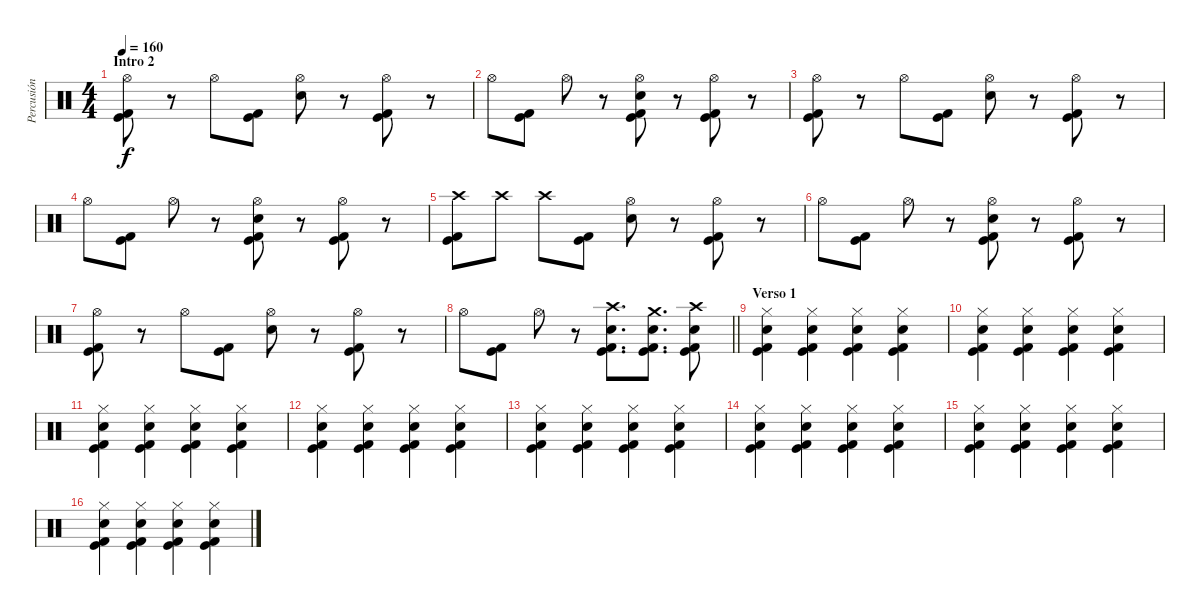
\track ("Percusión" "Percusión") {instrument percussion}
\staff {score}
\articulation defaults
\ts (4 4)
\section ("" "Intro 2")
\tempo 160
\clef neutral
\ks c
("Hi-Hat (open)" "Kick (hit)" "Kick (hit) 2").8{dy f} r.8 "Hi-Hat (open)".8 ("Kick (hit)" "Kick (hit) 2").8 ("Hi-Hat (open)" "Electric Snare (hit)").8 r.8 ("Hi-Hat (open)" "Kick (hit)" "Kick (hit) 2").8 r.8 |
"Hi-Hat (open)".8 ("Kick (hit)" "Kick (hit) 2").8 "Hi-Hat (open)".8 r.8 ("Hi-Hat (open)" "Electric Snare (hit)" "Kick (hit)" "Kick (hit) 2").8 r.8 ("Hi-Hat (open)" "Kick (hit)" "Kick (hit) 2").8 r.8 |
("Hi-Hat (open)" "Kick (hit)" "Kick (hit) 2").8 r.8 "Hi-Hat (open)".8 ("Kick (hit)" "Kick (hit) 2").8 ("Hi-Hat (open)" "Electric Snare (hit)").8 r.8 ("Hi-Hat (open)" "Kick (hit)" "Kick (hit) 2").8 r.8 |
"Hi-Hat (open)".8 ("Kick (hit)" "Kick (hit) 2").8 "Hi-Hat (open)".8 r.8 ("Hi-Hat (open)" "Electric Snare (hit)" "Kick (hit)" "Kick (hit) 2").8 r.8 ("Hi-Hat (open)" "Kick (hit)" "Kick (hit) 2").8 r.8 |
("Crash high (hit)" "Kick (hit)" "Kick (hit) 2").8 "Crash high (hit)".8 "Crash high (hit)".8 ("Kick (hit)" "Kick (hit) 2").8 ("Hi-Hat (open)" "Electric Snare (hit)").8 r.8 ("Hi-Hat (open)" "Kick (hit)" "Kick (hit) 2").8 r.8 |
"Hi-Hat (open)".8 ("Kick (hit)" "Kick (hit) 2").8 "Hi-Hat (open)".8 r.8 ("Hi-Hat (open)" "Electric Snare (hit)" "Kick (hit)" "Kick (hit) 2").8 r.8 ("Hi-Hat (open)" "Kick (hit)" "Kick (hit) 2").8 r.8 |
("Hi-Hat (open)" "Kick (hit)" "Kick (hit) 2").8 r.8 "Hi-Hat (open)".8 ("Kick (hit)" "Kick (hit) 2").8 ("Hi-Hat (open)" "Electric Snare (hit)").8 r.8 ("Hi-Hat (open)" "Kick (hit)" "Kick (hit) 2").8 r.8 |
\barLineRight lightlight "Hi-Hat (open)".8
("Kick (hit)" "Kick (hit) 2").8 "Hi-Hat (open)".8 r.8 ("Crash high (hit)" "Electric Snare (hit)" "Kick (hit)" "Kick (hit) 2").8{d} ("Crash medium (hit)" "Electric Snare (hit)" "Kick (hit)" "Kick (hit) 2").8{d} ("Crash high (hit)" "Electric Snare (hit)" "Kick (hit)" "Kick (hit) 2").8 |
\section ("" "Verso 1")
("Hi-Hat (closed)" "Electric Snare (hit)" "Kick (hit)" "Kick (hit) 2").4 ("Hi-Hat (closed)" "Electric Snare (hit)" "Kick (hit)" "Kick (hit) 2").4 ("Hi-Hat (closed)" "Electric Snare (hit)" "Kick (hit)" "Kick (hit) 2").4 ("Hi-Hat (closed)" "Electric Snare (hit)" "Kick (hit)" "Kick (hit) 2").4 |
("Hi-Hat (closed)" "Electric Snare (hit)" "Kick (hit)" "Kick (hit) 2").4 ("Hi-Hat (closed)" "Electric Snare (hit)" "Kick (hit)" "Kick (hit) 2").4 ("Hi-Hat (closed)" "Electric Snare (hit)" "Kick (hit)" "Kick (hit) 2").4 ("Hi-Hat (closed)" "Electric Snare (hit)" "Kick (hit)" "Kick (hit) 2").4 |
("Hi-Hat (closed)" "Electric Snare (hit)" "Kick (hit)" "Kick (hit) 2").4 ("Hi-Hat (closed)" "Electric Snare (hit)" "Kick (hit)" "Kick (hit) 2").4 ("Hi-Hat (closed)" "Electric Snare (hit)" "Kick (hit)" "Kick (hit) 2").4 ("Hi-Hat (closed)" "Electric Snare (hit)" "Kick (hit)" "Kick (hit) 2").4 |
("Hi-Hat (closed)" "Electric Snare (hit)" "Kick (hit)" "Kick (hit) 2").4 ("Hi-Hat (closed)" "Electric Snare (hit)" "Kick (hit)" "Kick (hit) 2").4 ("Hi-Hat (closed)" "Electric Snare (hit)" "Kick (hit)" "Kick (hit) 2").4 ("Hi-Hat (closed)" "Electric Snare (hit)" "Kick (hit)" "Kick (hit) 2").4 |
("Hi-Hat (closed)" "Electric Snare (hit)" "Kick (hit)" "Kick (hit) 2").4 ("Hi-Hat (closed)" "Electric Snare (hit)" "Kick (hit)" "Kick (hit) 2").4 ("Hi-Hat (closed)" "Electric Snare (hit)" "Kick (hit)" "Kick (hit) 2").4 ("Hi-Hat (closed)" "Electric Snare (hit)" "Kick (hit)" "Kick (hit) 2").4 |
("Hi-Hat (closed)" "Electric Snare (hit)" "Kick (hit)" "Kick (hit) 2").4 ("Hi-Hat (closed)" "Electric Snare (hit)" "Kick (hit)" "Kick (hit) 2").4 ("Hi-Hat (closed)" "Electric Snare (hit)" "Kick (hit)" "Kick (hit) 2").4 ("Hi-Hat (closed)" "Electric Snare (hit)" "Kick (hit)" "Kick (hit) 2").4 |
("Hi-Hat (closed)" "Electric Snare (hit)" "Kick (hit)" "Kick (hit) 2").4 ("Hi-Hat (closed)" "Electric Snare (hit)" "Kick (hit)" "Kick (hit) 2").4 ("Hi-Hat (closed)" "Electric Snare (hit)" "Kick (hit)" "Kick (hit) 2").4 ("Hi-Hat (closed)" "Electric Snare (hit)" "Kick (hit)" "Kick (hit) 2").4 |
("Hi-Hat (closed)" "Electric Snare (hit)" "Kick (hit)" "Kick (hit) 2").4 ("Hi-Hat (closed)" "Electric Snare (hit)" "Kick (hit)" "Kick (hit) 2").4 ("Hi-Hat (closed)" "Electric Snare (hit)" "Kick (hit)" "Kick (hit) 2").4 ("Hi-Hat (closed)" "Electric Snare (hit)" "Kick (hit)" "Kick (hit) 2").4
